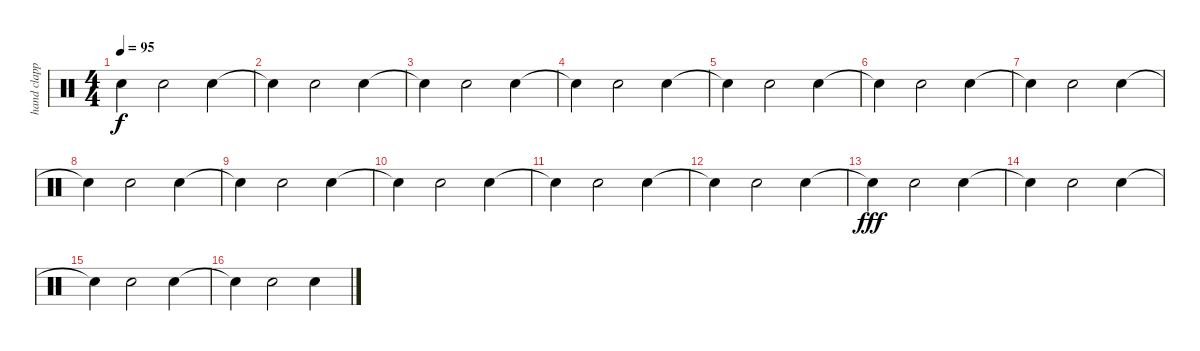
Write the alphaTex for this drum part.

\track ("hand clapping" "hand clapp") {instrument percussion}
\staff {score}
\articulation defaults
\ts (4 4)
\tempo 95
\clef neutral
\ks c "Snare (hit)"{t}.4{dy f} "Hand Clap (hit)".2 "Hand Clap (hit)".4
|
"Snare (hit)"{t}.4 "Hand Clap (hit)".2 "Hand Clap (hit)".4 |
"Snare (hit)"{t}.4 "Hand Clap (hit)".2 "Hand Clap (hit)".4 |
"Snare (hit)"{t}.4 "Hand Clap (hit)".2 "Hand Clap (hit)".4 |
"Snare (hit)"{t}.4 "Hand Clap (hit)".2 "Hand Clap (hit)".4 |
"Snare (hit)"{t}.4 "Hand Clap (hit)".2 "Hand Clap (hit)".4 |
"Snare (hit)"{t}.4 "Hand Clap (hit)".2 "Hand Clap (hit)".4 |
"Snare (hit)"{t}.4 "Hand Clap (hit)".2 "Hand Clap (hit)".4 |
"Snare (hit)"{t}.4 "Hand Clap (hit)".2 "Hand Clap (hit)".4 |
"Snare (hit)"{t}.4 "Hand Clap (hit)".2 "Hand Clap (hit)".4 |
"Snare (hit)"{t}.4 "Hand Clap (hit)".2 "Hand Clap (hit)".4 |
"Snare (hit)"{t}.4 "Hand Clap (hit)".2 "Hand Clap (hit)".4 |
"Snare (hit)"{t}.4{dy fff} "Hand Clap (hit)".2 "Hand Clap (hit)".4 |
"Snare (hit)"{t}.4 "Hand Clap (hit)".2 "Hand Clap (hit)".4 |
"Snare (hit)"{t}.4 "Hand Clap (hit)".2 "Hand Clap (hit)".4 |
"Snare (hit)"{t}.4 "Hand Clap (hit)".2 "Hand Clap (hit)".4
